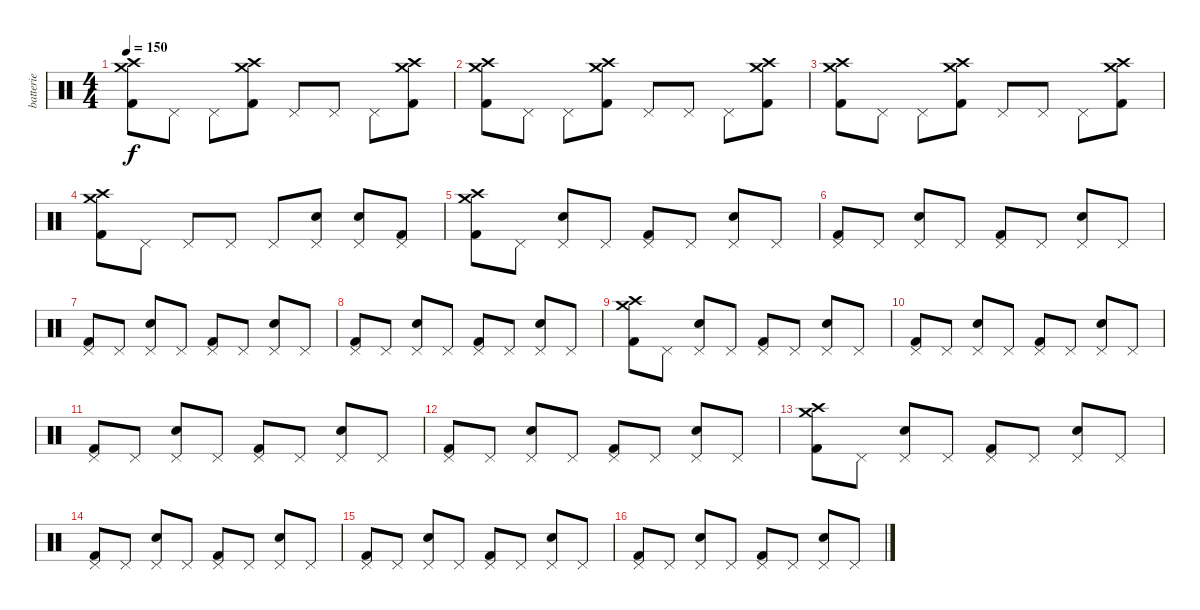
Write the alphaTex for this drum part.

\track ("batterie" "batterie") {instrument percussion}
\staff {score}
\articulation defaults
\ts (4 4)
\tempo 150
\clef neutral
\ks c
("Crash high (hit)" "Crash medium (hit)" "Kick (hit) 2").8{dy f} "Pedal Hi-Hat (hit)".8 "Pedal Hi-Hat (hit)".8 ("Crash high (hit)" "Crash medium (hit)" "Kick (hit) 2").8 "Pedal Hi-Hat (hit)".8 "Pedal Hi-Hat (hit)".8 "Pedal Hi-Hat (hit)".8 ("Crash high (hit)" "Crash medium (hit)" "Kick (hit) 2").8 |
("Crash high (hit)" "Crash medium (hit)" "Kick (hit) 2").8 "Pedal Hi-Hat (hit)".8 "Pedal Hi-Hat (hit)".8 ("Crash high (hit)" "Crash medium (hit)" "Kick (hit) 2").8 "Pedal Hi-Hat (hit)".8 "Pedal Hi-Hat (hit)".8 "Pedal Hi-Hat (hit)".8 ("Crash high (hit)" "Crash medium (hit)" "Kick (hit) 2").8 |
("Crash high (hit)" "Crash medium (hit)" "Kick (hit) 2").8 "Pedal Hi-Hat (hit)".8 "Pedal Hi-Hat (hit)".8 ("Crash high (hit)" "Crash medium (hit)" "Kick (hit) 2").8 "Pedal Hi-Hat (hit)".8 "Pedal Hi-Hat (hit)".8 "Pedal Hi-Hat (hit)".8 ("Crash high (hit)" "Crash medium (hit)" "Kick (hit) 2").8 |
("Crash high (hit)" "Crash medium (hit)" "Kick (hit) 2").8 "Pedal Hi-Hat (hit)".8 "Pedal Hi-Hat (hit)".8 "Pedal Hi-Hat (hit)".8 "Pedal Hi-Hat (hit)".8 ("Pedal Hi-Hat (hit)" "Snare (hit) 2").8 ("Pedal Hi-Hat (hit)" "Snare (hit) 2").8 ("Pedal Hi-Hat (hit)" "Kick (hit) 2").8 |
("Crash high (hit)" "Crash medium (hit)" "Kick (hit) 2").8 "Pedal Hi-Hat (hit)".8 ("Pedal Hi-Hat (hit)" "Snare (hit) 2").8 "Pedal Hi-Hat (hit)".8 ("Pedal Hi-Hat (hit)" "Kick (hit) 2").8 "Pedal Hi-Hat (hit)".8 ("Pedal Hi-Hat (hit)" "Snare (hit) 2").8 "Pedal Hi-Hat (hit)".8 |
("Pedal Hi-Hat (hit)" "Kick (hit) 2").8 "Pedal Hi-Hat (hit)".8 ("Pedal Hi-Hat (hit)" "Snare (hit) 2").8 "Pedal Hi-Hat (hit)".8 ("Pedal Hi-Hat (hit)" "Kick (hit) 2").8 "Pedal Hi-Hat (hit)".8 ("Pedal Hi-Hat (hit)" "Snare (hit) 2").8 "Pedal Hi-Hat (hit)".8 |
("Pedal Hi-Hat (hit)" "Kick (hit) 2").8 "Pedal Hi-Hat (hit)".8 ("Pedal Hi-Hat (hit)" "Snare (hit) 2").8 "Pedal Hi-Hat (hit)".8 ("Pedal Hi-Hat (hit)" "Kick (hit) 2").8 "Pedal Hi-Hat (hit)".8 ("Pedal Hi-Hat (hit)" "Snare (hit) 2").8 "Pedal Hi-Hat (hit)".8 |
("Pedal Hi-Hat (hit)" "Kick (hit) 2").8 "Pedal Hi-Hat (hit)".8 ("Pedal Hi-Hat (hit)" "Snare (hit) 2").8 "Pedal Hi-Hat (hit)".8 ("Pedal Hi-Hat (hit)" "Kick (hit) 2").8 "Pedal Hi-Hat (hit)".8 ("Pedal Hi-Hat (hit)" "Snare (hit) 2").8 "Pedal Hi-Hat (hit)".8 |
("Crash high (hit)" "Crash medium (hit)" "Kick (hit) 2").8 "Pedal Hi-Hat (hit)".8 ("Pedal Hi-Hat (hit)" "Snare (hit) 2").8 "Pedal Hi-Hat (hit)".8 ("Pedal Hi-Hat (hit)" "Kick (hit) 2").8 "Pedal Hi-Hat (hit)".8 ("Pedal Hi-Hat (hit)" "Snare (hit) 2").8 "Pedal Hi-Hat (hit)".8 |
("Pedal Hi-Hat (hit)" "Kick (hit) 2").8 "Pedal Hi-Hat (hit)".8 ("Pedal Hi-Hat (hit)" "Snare (hit) 2").8 "Pedal Hi-Hat (hit)".8 ("Pedal Hi-Hat (hit)" "Kick (hit) 2").8 "Pedal Hi-Hat (hit)".8 ("Pedal Hi-Hat (hit)" "Snare (hit) 2").8 "Pedal Hi-Hat (hit)".8 |
("Pedal Hi-Hat (hit)" "Kick (hit) 2").8 "Pedal Hi-Hat (hit)".8 ("Pedal Hi-Hat (hit)" "Snare (hit) 2").8 "Pedal Hi-Hat (hit)".8 ("Pedal Hi-Hat (hit)" "Kick (hit) 2").8 "Pedal Hi-Hat (hit)".8 ("Pedal Hi-Hat (hit)" "Snare (hit) 2").8 "Pedal Hi-Hat (hit)".8 |
("Pedal Hi-Hat (hit)" "Kick (hit) 2").8 "Pedal Hi-Hat (hit)".8 ("Pedal Hi-Hat (hit)" "Snare (hit) 2").8 "Pedal Hi-Hat (hit)".8 ("Pedal Hi-Hat (hit)" "Kick (hit) 2").8 "Pedal Hi-Hat (hit)".8 ("Pedal Hi-Hat (hit)" "Snare (hit) 2").8 "Pedal Hi-Hat (hit)".8 |
("Crash high (hit)" "Crash medium (hit)" "Kick (hit) 2").8 "Pedal Hi-Hat (hit)".8 ("Pedal Hi-Hat (hit)" "Snare (hit) 2").8 "Pedal Hi-Hat (hit)".8 ("Pedal Hi-Hat (hit)" "Kick (hit) 2").8 "Pedal Hi-Hat (hit)".8 ("Pedal Hi-Hat (hit)" "Snare (hit) 2").8 "Pedal Hi-Hat (hit)".8 |
("Pedal Hi-Hat (hit)" "Kick (hit) 2").8 "Pedal Hi-Hat (hit)".8 ("Pedal Hi-Hat (hit)" "Snare (hit) 2").8 "Pedal Hi-Hat (hit)".8 ("Pedal Hi-Hat (hit)" "Kick (hit) 2").8 "Pedal Hi-Hat (hit)".8 ("Pedal Hi-Hat (hit)" "Snare (hit) 2").8 "Pedal Hi-Hat (hit)".8 |
("Pedal Hi-Hat (hit)" "Kick (hit) 2").8 "Pedal Hi-Hat (hit)".8 ("Pedal Hi-Hat (hit)" "Snare (hit) 2").8 "Pedal Hi-Hat (hit)".8 ("Pedal Hi-Hat (hit)" "Kick (hit) 2").8 "Pedal Hi-Hat (hit)".8 ("Pedal Hi-Hat (hit)" "Snare (hit) 2").8 "Pedal Hi-Hat (hit)".8 |
("Pedal Hi-Hat (hit)" "Kick (hit) 2").8 "Pedal Hi-Hat (hit)".8 ("Pedal Hi-Hat (hit)" "Snare (hit) 2").8 "Pedal Hi-Hat (hit)".8 ("Pedal Hi-Hat (hit)" "Kick (hit) 2").8 "Pedal Hi-Hat (hit)".8 ("Pedal Hi-Hat (hit)" "Snare (hit) 2").8 "Pedal Hi-Hat (hit)".8
